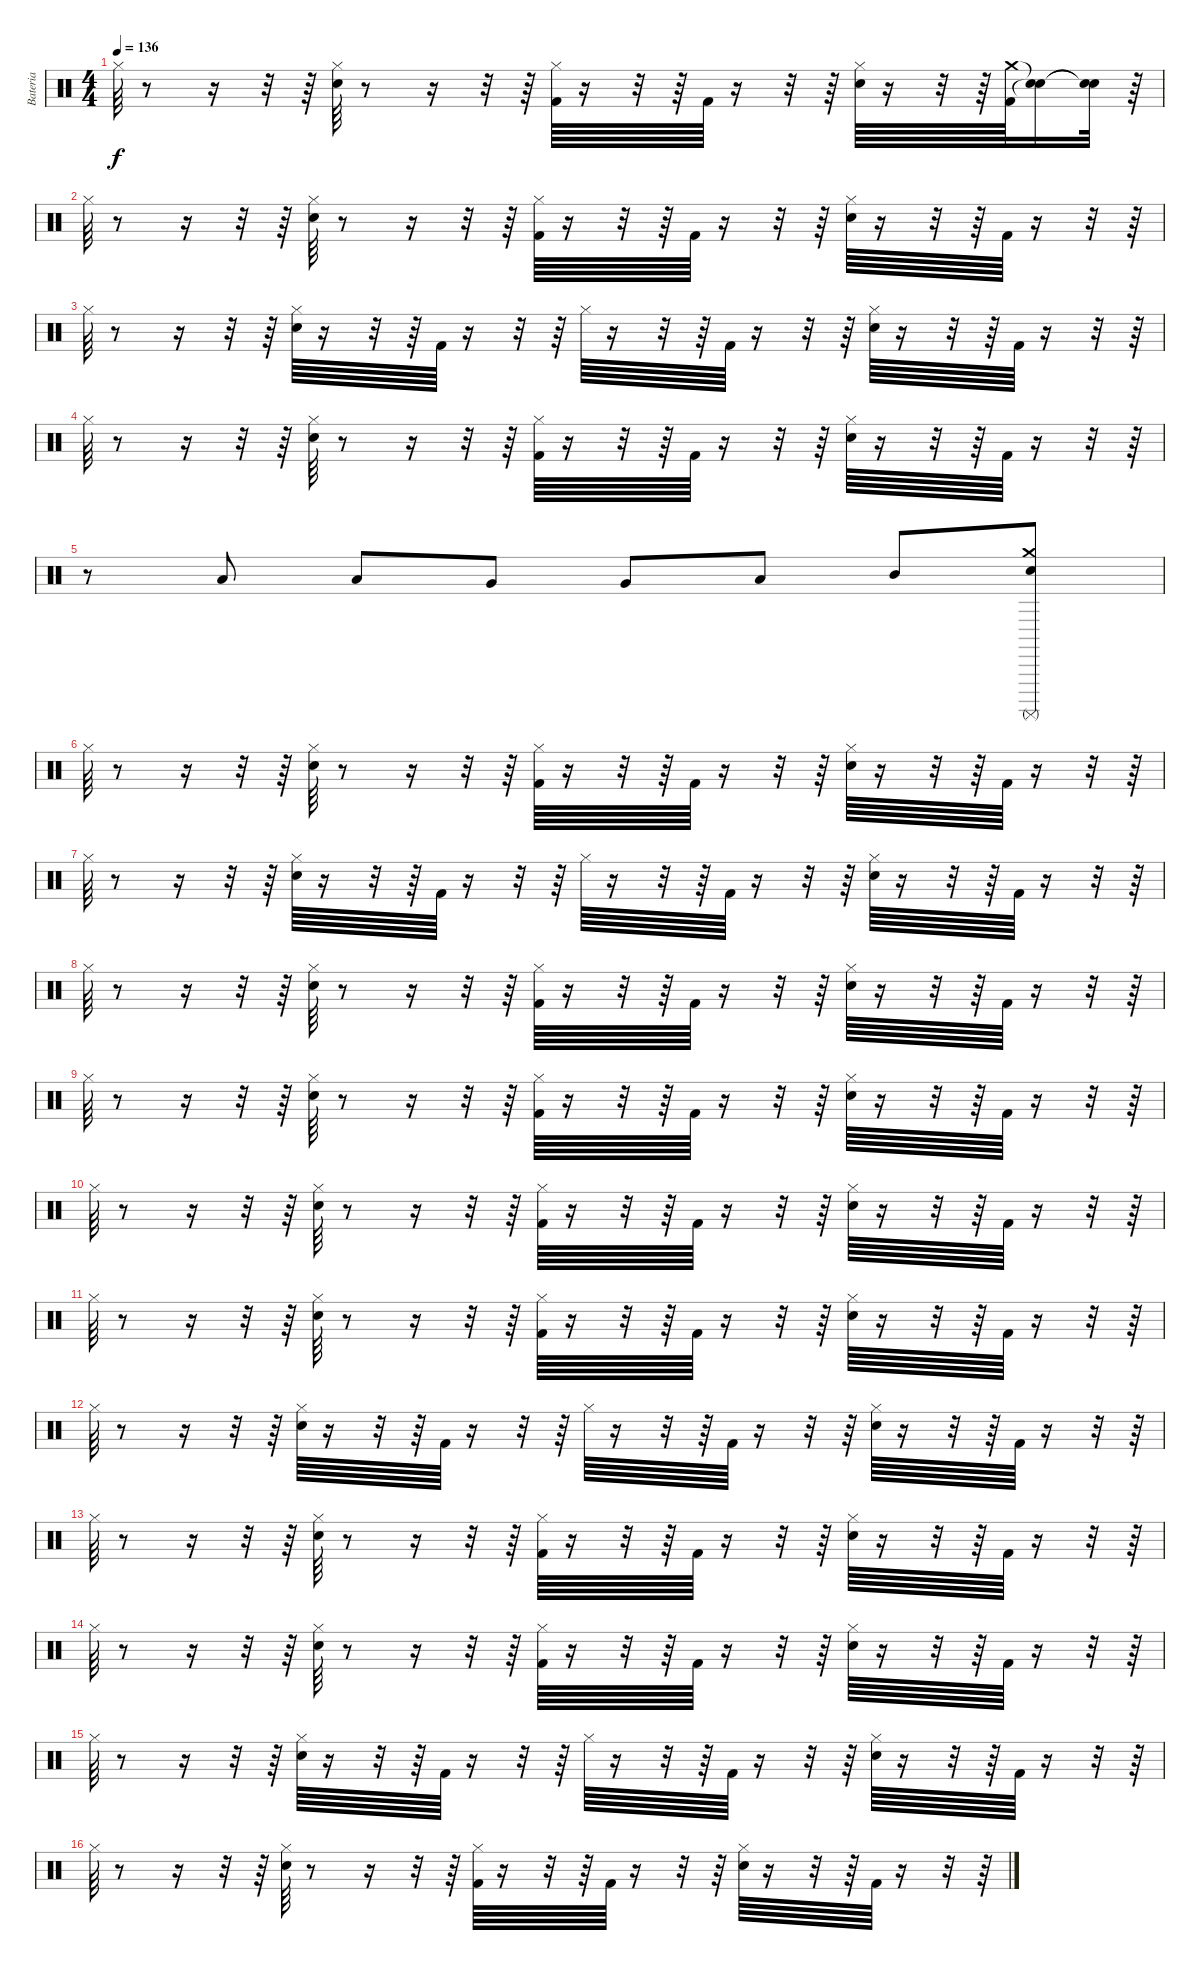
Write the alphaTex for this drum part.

\track ("Bateria" "Bateria") {instrument percussion}
\staff {score}
\articulation defaults
\ts (4 4)
\tempo 136
\clef neutral
\ks c "Hi-Hat (closed)".64{dy f}
r.8 r.16 r.32 r.64 ("Snare (hit) 2" "Hi-Hat (closed)").64 r.8 r.16 r.32 r.64 ("Kick (hit) 2" "Hi-Hat (closed)").64 r.16 r.32 r.64 "Kick (hit) 2".64 r.16 r.32 r.64 ("Snare (hit) 2" "Hi-Hat (closed)").64 r.16 r.32 r.64 ("Kick (hit) 2" "Crash medium (hit)").64 ("Snare (hit)"{t} "Snare (hit)"{t}).16 ("Snare (hit)"{t} "Snare (hit)"{t}).32 r.64 |
"Hi-Hat (closed)".64 r.8 r.16 r.32 r.64 ("Snare (hit) 2" "Hi-Hat (closed)").64 r.8 r.16 r.32 r.64 ("Kick (hit) 2" "Hi-Hat (closed)").64 r.16 r.32 r.64 "Kick (hit) 2".64 r.16 r.32 r.64 ("Snare (hit) 2" "Hi-Hat (closed)").64 r.16 r.32 r.64 "Kick (hit) 2".64 r.16 r.32 r.64 |
"Hi-Hat (closed)".64 r.8 r.16 r.32 r.64 ("Snare (hit) 2" "Hi-Hat (closed)").64 r.16 r.32 r.64 "Kick (hit) 2".64 r.16 r.32 r.64 "Hi-Hat (closed)".64 r.16 r.32 r.64 "Kick (hit) 2".64 r.16 r.32 r.64 ("Snare (hit) 2" "Hi-Hat (closed)").64 r.16 r.32 r.64 "Kick (hit) 2".64 r.16 r.32 r.64 |
"Hi-Hat (closed)".64 r.8 r.16 r.32 r.64 ("Snare (hit) 2" "Hi-Hat (closed)").64 r.8 r.16 r.32 r.64 ("Kick (hit) 2" "Hi-Hat (closed)").64 r.16 r.32 r.64 "Kick (hit) 2".64 r.16 r.32 r.64 ("Snare (hit) 2" "Hi-Hat (closed)").64 r.16 r.32 r.64 "Kick (hit) 2".64 r.16 r.32 r.64 |
r.8 "Low Floor Tom (hit)".8 "Low Floor Tom (hit)".8 "Very Low Tom (hit)".8 "Very Low Tom (hit)".8 "Low Tom (hit)".8 "Mid Tom (hit)".8 ("Snare (hit) 2" "Crash medium (hit)" "Surdo (mute)").8 |
"Hi-Hat (closed)".64 r.8 r.16 r.32 r.64 ("Snare (hit) 2" "Hi-Hat (closed)").64 r.8 r.16 r.32 r.64 ("Kick (hit) 2" "Hi-Hat (closed)").64 r.16 r.32 r.64 "Kick (hit) 2".64 r.16 r.32 r.64 ("Snare (hit) 2" "Hi-Hat (closed)").64 r.16 r.32 r.64 "Kick (hit) 2".64 r.16 r.32 r.64 |
"Hi-Hat (closed)".64 r.8 r.16 r.32 r.64 ("Snare (hit) 2" "Hi-Hat (closed)").64 r.16 r.32 r.64 "Kick (hit) 2".64 r.16 r.32 r.64 "Hi-Hat (closed)".64 r.16 r.32 r.64 "Kick (hit) 2".64 r.16 r.32 r.64 ("Snare (hit) 2" "Hi-Hat (closed)").64 r.16 r.32 r.64 "Kick (hit) 2".64 r.16 r.32 r.64 |
"Hi-Hat (closed)".64 r.8 r.16 r.32 r.64 ("Snare (hit) 2" "Hi-Hat (closed)").64 r.8 r.16 r.32 r.64 ("Kick (hit) 2" "Hi-Hat (closed)").64 r.16 r.32 r.64 "Kick (hit) 2".64 r.16 r.32 r.64 ("Snare (hit) 2" "Hi-Hat (closed)").64 r.16 r.32 r.64 "Kick (hit) 2".64 r.16 r.32 r.64 |
"Hi-Hat (closed)".64 r.8 r.16 r.32 r.64 ("Snare (hit) 2" "Hi-Hat (closed)").64 r.8 r.16 r.32 r.64 ("Kick (hit) 2" "Hi-Hat (closed)").64 r.16 r.32 r.64 "Kick (hit) 2".64 r.16 r.32 r.64 ("Snare (hit) 2" "Hi-Hat (closed)").64 r.16 r.32 r.64 "Kick (hit) 2".64 r.16 r.32 r.64 |
"Hi-Hat (closed)".64 r.8 r.16 r.32 r.64 ("Snare (hit) 2" "Hi-Hat (closed)").64 r.8 r.16 r.32 r.64 ("Kick (hit) 2" "Hi-Hat (closed)").64 r.16 r.32 r.64 "Kick (hit) 2".64 r.16 r.32 r.64 ("Snare (hit) 2" "Hi-Hat (closed)").64 r.16 r.32 r.64 "Kick (hit) 2".64 r.16 r.32 r.64 |
"Hi-Hat (closed)".64 r.8 r.16 r.32 r.64 ("Snare (hit) 2" "Hi-Hat (closed)").64 r.8 r.16 r.32 r.64 ("Kick (hit) 2" "Hi-Hat (closed)").64 r.16 r.32 r.64 "Kick (hit) 2".64 r.16 r.32 r.64 ("Snare (hit) 2" "Hi-Hat (closed)").64 r.16 r.32 r.64 "Kick (hit) 2".64 r.16 r.32 r.64 |
"Hi-Hat (closed)".64 r.8 r.16 r.32 r.64 ("Snare (hit) 2" "Hi-Hat (closed)").64 r.16 r.32 r.64 "Kick (hit) 2".64 r.16 r.32 r.64 "Hi-Hat (closed)".64 r.16 r.32 r.64 "Kick (hit) 2".64 r.16 r.32 r.64 ("Snare (hit) 2" "Hi-Hat (closed)").64 r.16 r.32 r.64 "Kick (hit) 2".64 r.16 r.32 r.64 |
"Hi-Hat (closed)".64 r.8 r.16 r.32 r.64 ("Snare (hit) 2" "Hi-Hat (closed)").64 r.8 r.16 r.32 r.64 ("Kick (hit) 2" "Hi-Hat (closed)").64 r.16 r.32 r.64 "Kick (hit) 2".64 r.16 r.32 r.64 ("Snare (hit) 2" "Hi-Hat (closed)").64 r.16 r.32 r.64 "Kick (hit) 2".64 r.16 r.32 r.64 |
"Hi-Hat (closed)".64 r.8 r.16 r.32 r.64 ("Snare (hit) 2" "Hi-Hat (closed)").64 r.8 r.16 r.32 r.64 ("Kick (hit) 2" "Hi-Hat (closed)").64 r.16 r.32 r.64 "Kick (hit) 2".64 r.16 r.32 r.64 ("Snare (hit) 2" "Hi-Hat (closed)").64 r.16 r.32 r.64 "Kick (hit) 2".64 r.16 r.32 r.64 |
"Hi-Hat (closed)".64 r.8 r.16 r.32 r.64 ("Snare (hit) 2" "Hi-Hat (closed)").64 r.16 r.32 r.64 "Kick (hit) 2".64 r.16 r.32 r.64 "Hi-Hat (closed)".64 r.16 r.32 r.64 "Kick (hit) 2".64 r.16 r.32 r.64 ("Snare (hit) 2" "Hi-Hat (closed)").64 r.16 r.32 r.64 "Kick (hit) 2".64 r.16 r.32 r.64 |
"Hi-Hat (closed)".64 r.8 r.16 r.32 r.64 ("Snare (hit) 2" "Hi-Hat (closed)").64 r.8 r.16 r.32 r.64 ("Kick (hit) 2" "Hi-Hat (closed)").64 r.16 r.32 r.64 "Kick (hit) 2".64 r.16 r.32 r.64 ("Snare (hit) 2" "Hi-Hat (closed)").64 r.16 r.32 r.64 "Kick (hit) 2".64 r.16 r.32 r.64
